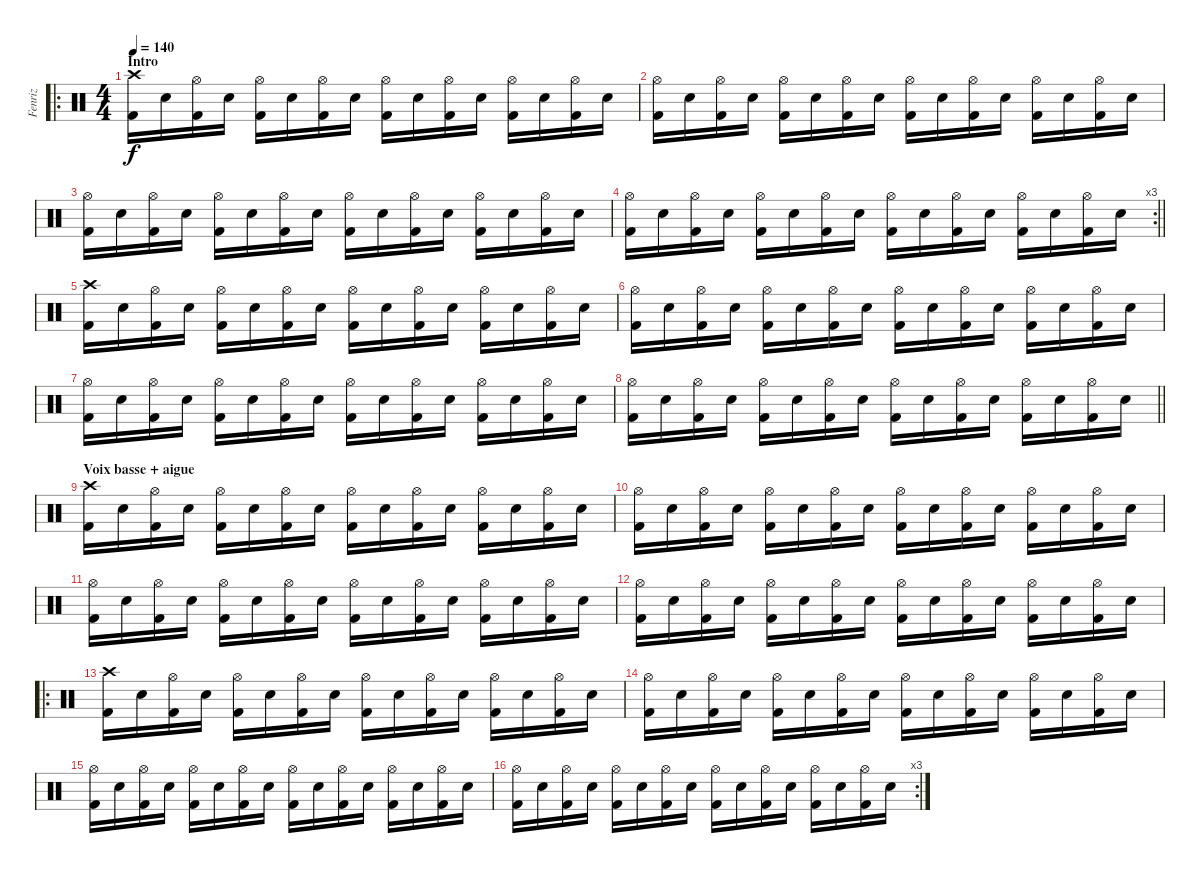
\track ("Fenriz" "Fenriz") {instrument percussion}
\staff {score}
\articulation defaults
\ro
\ts (4 4)
\section ("" "Intro")
\tempo 140
\clef neutral
\ks c
("Kick (hit) 2" "Crash high (hit)").16{dy f} "Electric Snare (hit)".16 ("Kick (hit) 2" "Hi-Hat (open)").16 "Electric Snare (hit)".16 ("Kick (hit) 2" "Hi-Hat (open)").16 "Electric Snare (hit)".16 ("Kick (hit) 2" "Hi-Hat (open)").16 "Electric Snare (hit)".16 ("Kick (hit) 2" "Hi-Hat (open)").16 "Electric Snare (hit)".16 ("Kick (hit) 2" "Hi-Hat (open)").16 "Electric Snare (hit)".16 ("Kick (hit) 2" "Hi-Hat (open)").16 "Electric Snare (hit)".16 ("Kick (hit) 2" "Hi-Hat (open)").16 "Electric Snare (hit)".16 |
("Kick (hit) 2" "Hi-Hat (open)").16 "Electric Snare (hit)".16 ("Kick (hit) 2" "Hi-Hat (open)").16 "Electric Snare (hit)".16 ("Kick (hit) 2" "Hi-Hat (open)").16 "Electric Snare (hit)".16 ("Kick (hit) 2" "Hi-Hat (open)").16 "Electric Snare (hit)".16 ("Kick (hit) 2" "Hi-Hat (open)").16 "Electric Snare (hit)".16 ("Kick (hit) 2" "Hi-Hat (open)").16 "Electric Snare (hit)".16 ("Kick (hit) 2" "Hi-Hat (open)").16 "Electric Snare (hit)".16 ("Kick (hit) 2" "Hi-Hat (open)").16 "Electric Snare (hit)".16 |
("Kick (hit) 2" "Hi-Hat (open)").16 "Electric Snare (hit)".16 ("Kick (hit) 2" "Hi-Hat (open)").16 "Electric Snare (hit)".16 ("Kick (hit) 2" "Hi-Hat (open)").16 "Electric Snare (hit)".16 ("Kick (hit) 2" "Hi-Hat (open)").16 "Electric Snare (hit)".16 ("Kick (hit) 2" "Hi-Hat (open)").16 "Electric Snare (hit)".16 ("Kick (hit) 2" "Hi-Hat (open)").16 "Electric Snare (hit)".16 ("Kick (hit) 2" "Hi-Hat (open)").16 "Electric Snare (hit)".16 ("Kick (hit) 2" "Hi-Hat (open)").16 "Electric Snare (hit)".16 |
\rc 3
\barLineRight lightlight
("Kick (hit) 2" "Hi-Hat (open)").16 "Electric Snare (hit)".16 ("Kick (hit) 2" "Hi-Hat (open)").16 "Electric Snare (hit)".16 ("Kick (hit) 2" "Hi-Hat (open)").16 "Electric Snare (hit)".16 ("Kick (hit) 2" "Hi-Hat (open)").16 "Electric Snare (hit)".16 ("Kick (hit) 2" "Hi-Hat (open)").16 "Electric Snare (hit)".16 ("Kick (hit) 2" "Hi-Hat (open)").16 "Electric Snare (hit)".16 ("Kick (hit) 2" "Hi-Hat (open)").16 "Electric Snare (hit)".16 ("Kick (hit) 2" "Hi-Hat (open)").16 "Electric Snare (hit)".16 |
("Kick (hit) 2" "Crash high (hit)").16 "Electric Snare (hit)".16 ("Kick (hit) 2" "Hi-Hat (open)").16 "Electric Snare (hit)".16 ("Kick (hit) 2" "Hi-Hat (open)").16 "Electric Snare (hit)".16 ("Kick (hit) 2" "Hi-Hat (open)").16 "Electric Snare (hit)".16 ("Kick (hit) 2" "Hi-Hat (open)").16 "Electric Snare (hit)".16 ("Kick (hit) 2" "Hi-Hat (open)").16 "Electric Snare (hit)".16 ("Kick (hit) 2" "Hi-Hat (open)").16 "Electric Snare (hit)".16 ("Kick (hit) 2" "Hi-Hat (open)").16 "Electric Snare (hit)".16 |
("Kick (hit) 2" "Hi-Hat (open)").16 "Electric Snare (hit)".16 ("Kick (hit) 2" "Hi-Hat (open)").16 "Electric Snare (hit)".16 ("Kick (hit) 2" "Hi-Hat (open)").16 "Electric Snare (hit)".16 ("Kick (hit) 2" "Hi-Hat (open)").16 "Electric Snare (hit)".16 ("Kick (hit) 2" "Hi-Hat (open)").16 "Electric Snare (hit)".16 ("Kick (hit) 2" "Hi-Hat (open)").16 "Electric Snare (hit)".16 ("Kick (hit) 2" "Hi-Hat (open)").16 "Electric Snare (hit)".16 ("Kick (hit) 2" "Hi-Hat (open)").16 "Electric Snare (hit)".16 |
("Kick (hit) 2" "Hi-Hat (open)").16 "Electric Snare (hit)".16 ("Kick (hit) 2" "Hi-Hat (open)").16 "Electric Snare (hit)".16 ("Kick (hit) 2" "Hi-Hat (open)").16 "Electric Snare (hit)".16 ("Kick (hit) 2" "Hi-Hat (open)").16 "Electric Snare (hit)".16 ("Kick (hit) 2" "Hi-Hat (open)").16 "Electric Snare (hit)".16 ("Kick (hit) 2" "Hi-Hat (open)").16 "Electric Snare (hit)".16 ("Kick (hit) 2" "Hi-Hat (open)").16 "Electric Snare (hit)".16 ("Kick (hit) 2" "Hi-Hat (open)").16 "Electric Snare (hit)".16 |
\barLineRight lightlight
("Kick (hit) 2" "Hi-Hat (open)").16 "Electric Snare (hit)".16 ("Kick (hit) 2" "Hi-Hat (open)").16 "Electric Snare (hit)".16 ("Kick (hit) 2" "Hi-Hat (open)").16 "Electric Snare (hit)".16 ("Kick (hit) 2" "Hi-Hat (open)").16 "Electric Snare (hit)".16 ("Kick (hit) 2" "Hi-Hat (open)").16 "Electric Snare (hit)".16 ("Kick (hit) 2" "Hi-Hat (open)").16 "Electric Snare (hit)".16 ("Kick (hit) 2" "Hi-Hat (open)").16 "Electric Snare (hit)".16 ("Kick (hit) 2" "Hi-Hat (open)").16 "Electric Snare (hit)".16 |
\section ("" "Voix basse + aigue")
("Kick (hit) 2" "Crash high (hit)").16 "Electric Snare (hit)".16 ("Kick (hit) 2" "Hi-Hat (open)").16 "Electric Snare (hit)".16 ("Kick (hit) 2" "Hi-Hat (open)").16 "Electric Snare (hit)".16 ("Kick (hit) 2" "Hi-Hat (open)").16 "Electric Snare (hit)".16 ("Kick (hit) 2" "Hi-Hat (open)").16 "Electric Snare (hit)".16 ("Kick (hit) 2" "Hi-Hat (open)").16 "Electric Snare (hit)".16 ("Kick (hit) 2" "Hi-Hat (open)").16 "Electric Snare (hit)".16 ("Kick (hit) 2" "Hi-Hat (open)").16 "Electric Snare (hit)".16 |
("Kick (hit) 2" "Hi-Hat (open)").16 "Electric Snare (hit)".16 ("Kick (hit) 2" "Hi-Hat (open)").16 "Electric Snare (hit)".16 ("Kick (hit) 2" "Hi-Hat (open)").16 "Electric Snare (hit)".16 ("Kick (hit) 2" "Hi-Hat (open)").16 "Electric Snare (hit)".16 ("Kick (hit) 2" "Hi-Hat (open)").16 "Electric Snare (hit)".16 ("Kick (hit) 2" "Hi-Hat (open)").16 "Electric Snare (hit)".16 ("Kick (hit) 2" "Hi-Hat (open)").16 "Electric Snare (hit)".16 ("Kick (hit) 2" "Hi-Hat (open)").16 "Electric Snare (hit)".16 |
("Kick (hit) 2" "Hi-Hat (open)").16 "Electric Snare (hit)".16 ("Kick (hit) 2" "Hi-Hat (open)").16 "Electric Snare (hit)".16 ("Kick (hit) 2" "Hi-Hat (open)").16 "Electric Snare (hit)".16 ("Kick (hit) 2" "Hi-Hat (open)").16 "Electric Snare (hit)".16 ("Kick (hit) 2" "Hi-Hat (open)").16 "Electric Snare (hit)".16 ("Kick (hit) 2" "Hi-Hat (open)").16 "Electric Snare (hit)".16 ("Kick (hit) 2" "Hi-Hat (open)").16 "Electric Snare (hit)".16 ("Kick (hit) 2" "Hi-Hat (open)").16 "Electric Snare (hit)".16 |
("Kick (hit) 2" "Hi-Hat (open)").16 "Electric Snare (hit)".16 ("Kick (hit) 2" "Hi-Hat (open)").16 "Electric Snare (hit)".16 ("Kick (hit) 2" "Hi-Hat (open)").16 "Electric Snare (hit)".16 ("Kick (hit) 2" "Hi-Hat (open)").16 "Electric Snare (hit)".16 ("Kick (hit) 2" "Hi-Hat (open)").16 "Electric Snare (hit)".16 ("Kick (hit) 2" "Hi-Hat (open)").16 "Electric Snare (hit)".16 ("Kick (hit) 2" "Hi-Hat (open)").16 "Electric Snare (hit)".16 ("Kick (hit) 2" "Hi-Hat (open)").16 "Electric Snare (hit)".16 |
\ro
("Kick (hit) 2" "Crash high (hit)").16 "Electric Snare (hit)".16 ("Kick (hit) 2" "Hi-Hat (open)").16 "Electric Snare (hit)".16 ("Kick (hit) 2" "Hi-Hat (open)").16 "Electric Snare (hit)".16 ("Kick (hit) 2" "Hi-Hat (open)").16 "Electric Snare (hit)".16 ("Kick (hit) 2" "Hi-Hat (open)").16 "Electric Snare (hit)".16 ("Kick (hit) 2" "Hi-Hat (open)").16 "Electric Snare (hit)".16 ("Kick (hit) 2" "Hi-Hat (open)").16 "Electric Snare (hit)".16 ("Kick (hit) 2" "Hi-Hat (open)").16 "Electric Snare (hit)".16 |
("Kick (hit) 2" "Hi-Hat (open)").16 "Electric Snare (hit)".16 ("Kick (hit) 2" "Hi-Hat (open)").16 "Electric Snare (hit)".16 ("Kick (hit) 2" "Hi-Hat (open)").16 "Electric Snare (hit)".16 ("Kick (hit) 2" "Hi-Hat (open)").16 "Electric Snare (hit)".16 ("Kick (hit) 2" "Hi-Hat (open)").16 "Electric Snare (hit)".16 ("Kick (hit) 2" "Hi-Hat (open)").16 "Electric Snare (hit)".16 ("Kick (hit) 2" "Hi-Hat (open)").16 "Electric Snare (hit)".16 ("Kick (hit) 2" "Hi-Hat (open)").16 "Electric Snare (hit)".16 |
("Kick (hit) 2" "Hi-Hat (open)").16 "Electric Snare (hit)".16 ("Kick (hit) 2" "Hi-Hat (open)").16 "Electric Snare (hit)".16 ("Kick (hit) 2" "Hi-Hat (open)").16 "Electric Snare (hit)".16 ("Kick (hit) 2" "Hi-Hat (open)").16 "Electric Snare (hit)".16 ("Kick (hit) 2" "Hi-Hat (open)").16 "Electric Snare (hit)".16 ("Kick (hit) 2" "Hi-Hat (open)").16 "Electric Snare (hit)".16 ("Kick (hit) 2" "Hi-Hat (open)").16 "Electric Snare (hit)".16 ("Kick (hit) 2" "Hi-Hat (open)").16 "Electric Snare (hit)".16 |
\rc 3
("Kick (hit) 2" "Hi-Hat (open)").16 "Electric Snare (hit)".16 ("Kick (hit) 2" "Hi-Hat (open)").16 "Electric Snare (hit)".16 ("Kick (hit) 2" "Hi-Hat (open)").16 "Electric Snare (hit)".16 ("Kick (hit) 2" "Hi-Hat (open)").16 "Electric Snare (hit)".16 ("Kick (hit) 2" "Hi-Hat (open)").16 "Electric Snare (hit)".16 ("Kick (hit) 2" "Hi-Hat (open)").16 "Electric Snare (hit)".16 ("Kick (hit) 2" "Hi-Hat (open)").16 "Electric Snare (hit)".16 ("Kick (hit) 2" "Hi-Hat (open)").16 "Electric Snare (hit)".16
